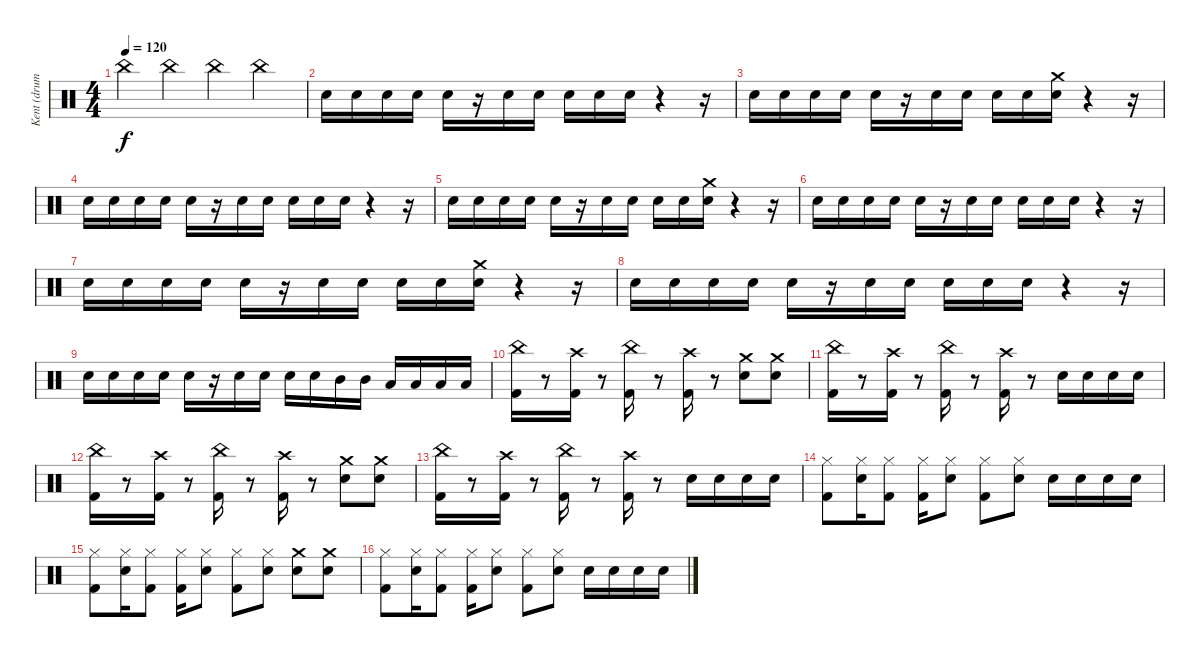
\track ("Kent (drums)" "Kent (drum") {instrument percussion}
\staff {score}
\articulation defaults
\ts (4 4)
\tempo 120
\clef neutral
\ks c "China (hit)".4{dy f} "China (hit)".4 "China (hit)".4 "China (hit)".4
|
"Snare (hit) 2".16 "Snare (hit) 2".16 "Snare (hit) 2".16 "Snare (hit) 2".16 "Snare (hit) 2".16 r.16 "Snare (hit) 2".16 "Snare (hit) 2".16 "Snare (hit) 2".16 "Snare (hit) 2".16 "Snare (hit) 2".16 r.4 r.16 |
"Snare (hit) 2".16 "Snare (hit) 2".16 "Snare (hit) 2".16 "Snare (hit) 2".16 "Snare (hit) 2".16 r.16 "Snare (hit) 2".16 "Snare (hit) 2".16 "Snare (hit) 2".16 "Snare (hit) 2".16 ("Crash medium (hit)" "Snare (hit) 2").16 r.4 r.16 |
"Snare (hit) 2".16 "Snare (hit) 2".16 "Snare (hit) 2".16 "Snare (hit) 2".16 "Snare (hit) 2".16 r.16 "Snare (hit) 2".16 "Snare (hit) 2".16 "Snare (hit) 2".16 "Snare (hit) 2".16 "Snare (hit) 2".16 r.4 r.16 |
"Snare (hit) 2".16 "Snare (hit) 2".16 "Snare (hit) 2".16 "Snare (hit) 2".16 "Snare (hit) 2".16 r.16 "Snare (hit) 2".16 "Snare (hit) 2".16 "Snare (hit) 2".16 "Snare (hit) 2".16 ("Crash medium (hit)" "Snare (hit) 2").16 r.4 r.16 |
"Snare (hit) 2".16 "Snare (hit) 2".16 "Snare (hit) 2".16 "Snare (hit) 2".16 "Snare (hit) 2".16 r.16 "Snare (hit) 2".16 "Snare (hit) 2".16 "Snare (hit) 2".16 "Snare (hit) 2".16 "Snare (hit) 2".16 r.4 r.16 |
"Snare (hit) 2".16 "Snare (hit) 2".16 "Snare (hit) 2".16 "Snare (hit) 2".16 "Snare (hit) 2".16 r.16 "Snare (hit) 2".16 "Snare (hit) 2".16 "Snare (hit) 2".16 "Snare (hit) 2".16 ("Crash medium (hit)" "Snare (hit) 2").16 r.4 r.16 |
"Snare (hit) 2".16 "Snare (hit) 2".16 "Snare (hit) 2".16 "Snare (hit) 2".16 "Snare (hit) 2".16 r.16 "Snare (hit) 2".16 "Snare (hit) 2".16 "Snare (hit) 2".16 "Snare (hit) 2".16 "Snare (hit) 2".16 r.4 r.16 |
"Snare (hit) 2".16 "Snare (hit) 2".16 "Snare (hit) 2".16 "Snare (hit) 2".16 "Snare (hit) 2".16 r.16 "Snare (hit) 2".16 "Snare (hit) 2".16 "Snare (hit) 2".16 "Snare (hit) 2".16 "Mid Tom (hit)".16 "Mid Tom (hit)".16 "Low Tom (hit)".16 "Low Tom (hit)".16 "Low Floor Tom (hit)".16 "Low Floor Tom (hit)".16 |
("China (hit)" "Kick (hit) 2").16 r.8 ("Crash high (hit)" "Kick (hit) 2").16 r.8 ("China (hit)" "Kick (hit) 2").16 r.8 ("Crash high (hit)" "Kick (hit) 2").16 r.8 ("Crash medium (hit)" "Snare (hit) 2").8 ("Crash medium (hit)" "Snare (hit) 2").8 |
("China (hit)" "Kick (hit) 2").16 r.8 ("Crash high (hit)" "Kick (hit) 2").16 r.8 ("China (hit)" "Kick (hit) 2").16 r.8 ("Crash high (hit)" "Kick (hit) 2").16 r.8 "Snare (hit) 2".16 "Snare (hit) 2".16 "Snare (hit) 2".16 "Snare (hit) 2".16 |
("China (hit)" "Kick (hit) 2").16 r.8 ("Crash high (hit)" "Kick (hit) 2").16 r.8 ("China (hit)" "Kick (hit) 2").16 r.8 ("Crash high (hit)" "Kick (hit) 2").16 r.8 ("Crash medium (hit)" "Snare (hit) 2").8 ("Crash medium (hit)" "Snare (hit) 2").8 |
("China (hit)" "Kick (hit) 2").16 r.8 ("Crash high (hit)" "Kick (hit) 2").16 r.8 ("China (hit)" "Kick (hit) 2").16 r.8 ("Crash high (hit)" "Kick (hit) 2").16 r.8 "Snare (hit) 2".16 "Snare (hit) 2".16 "Snare (hit) 2".16 "Snare (hit) 2".16 |
("Hi-Hat (closed)" "Kick (hit) 2").8 ("Hi-Hat (closed)" "Snare (hit) 2").16 ("Hi-Hat (closed)" "Kick (hit) 2").8 ("Hi-Hat (closed)" "Kick (hit) 2").16 ("Hi-Hat (closed)" "Snare (hit) 2").8 ("Hi-Hat (closed)" "Kick (hit) 2").8 ("Hi-Hat (closed)" "Snare (hit) 2").8 "Snare (hit) 2".16 "Snare (hit) 2".16 "Snare (hit) 2".16 "Snare (hit) 2".16 |
("Hi-Hat (closed)" "Kick (hit) 2").8 ("Hi-Hat (closed)" "Snare (hit) 2").16 ("Hi-Hat (closed)" "Kick (hit) 2").8 ("Hi-Hat (closed)" "Kick (hit) 2").16 ("Hi-Hat (closed)" "Snare (hit) 2").8 ("Hi-Hat (closed)" "Kick (hit) 2").8 ("Hi-Hat (closed)" "Snare (hit) 2").8 ("Crash medium (hit)" "Snare (hit) 2").8 ("Crash medium (hit)" "Snare (hit) 2").8 |
("Hi-Hat (closed)" "Kick (hit) 2").8 ("Hi-Hat (closed)" "Snare (hit) 2").16 ("Hi-Hat (closed)" "Kick (hit) 2").8 ("Hi-Hat (closed)" "Kick (hit) 2").16 ("Hi-Hat (closed)" "Snare (hit) 2").8 ("Hi-Hat (closed)" "Kick (hit) 2").8 ("Hi-Hat (closed)" "Snare (hit) 2").8 "Snare (hit) 2".16 "Snare (hit) 2".16 "Snare (hit) 2".16 "Snare (hit) 2".16
